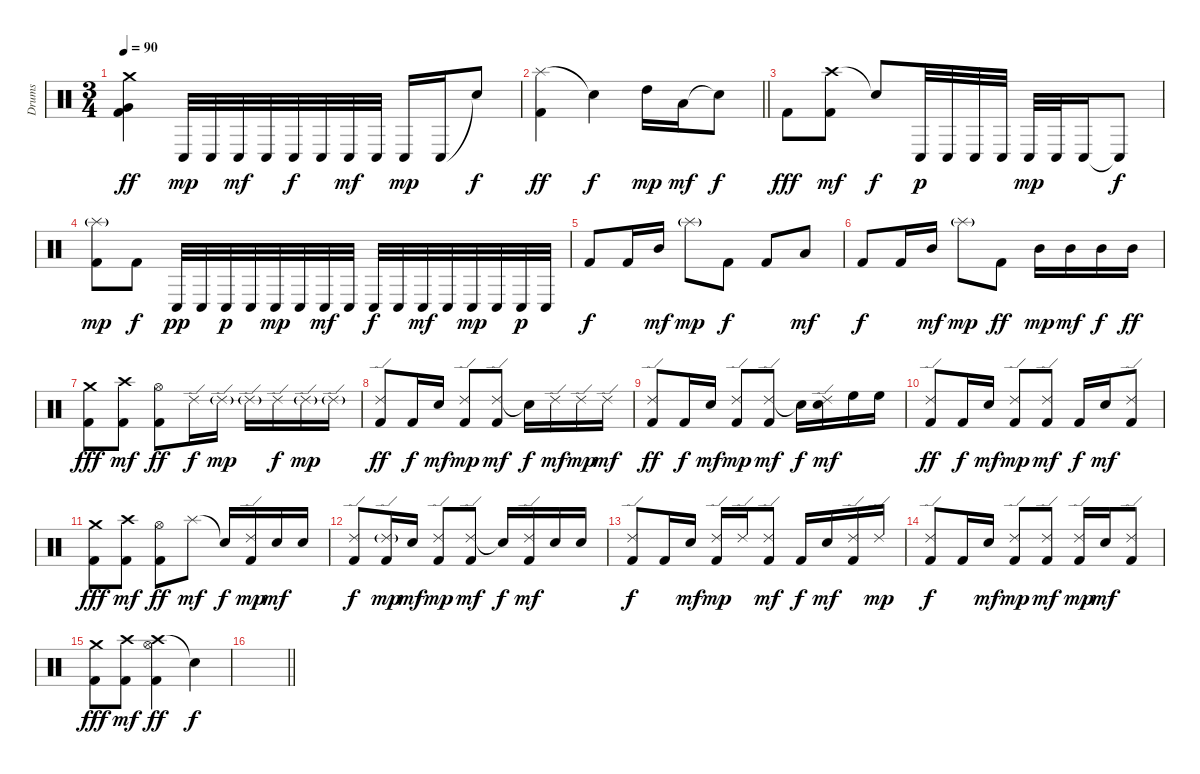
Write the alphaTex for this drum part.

\track ("Drums" "Drums") {instrument percussion}
\staff {score}
\articulation defaults
\ts (3 4)
\tempo 90
\clef neutral
\ks c
("Crash medium (hit)" "Very Low Tom (hit)" "Kick (hit) 2").4{dy ff} "Conga low (hit)".32{dy mp} "Conga low (hit)".32 "Conga low (hit)".32{dy mf} "Conga low (hit)".32 "Conga low (hit)".32{dy f} "Conga low (hit)".32 "Conga low (hit)".32{dy mf} "Conga low (hit)".32 "Conga low (hit)".16{dy mp} "Conga low (hit)".16 "Snare (hit)"{t}.8{dy f} |
\barLineRight lightlight
("Splash (hit)" "Kick (hit) 2").4{dy ff} "Snare (hit)"{t}.4{dy f} "High Tom (hit)".16{dy mp} "Low Tom (hit)".16{dy mf} "Snare (hit)"{t}.8{dy f} |
\section ("" "")
"Kick (hit) 2".8{dy fff} ("Crash high (hit)" "Kick (hit) 2").8{dy mf} "Snare (hit)"{t}.8{dy f} "Conga low (hit)".32{dy p} "Conga low (hit)".32 "Conga low (hit)".32 "Conga low (hit)".32 "Conga low (hit)".32{dy mp} "Conga low (hit)".32 "Conga low (hit)".16 "Conga low (hit)"{t}.8{dy f} |
("Splash (hit)"{g} "Kick (hit) 2").8{dy mp} "Kick (hit) 2".8{dy f} "Conga low (hit)".32{dy pp} "Conga low (hit)".32 "Conga low (hit)".32{dy p} "Conga low (hit)".32 "Conga low (hit)".32{dy mp} "Conga low (hit)".32 "Conga low (hit)".32{dy mf} "Conga low (hit)".32 "Conga low (hit)".32{dy f} "Conga low (hit)".32 "Conga low (hit)".32{dy mf} "Conga low (hit)".32 "Conga low (hit)".32{dy mp} "Conga low (hit)".32 "Conga low (hit)".32{dy p} "Conga low (hit)".32 |
"Kick (hit) 2".8{dy f} "Kick (hit) 2".16 "Mid Tom (hit)".16{dy mf} "Splash (hit)"{g}.8{dy mp} "Kick (hit) 2".8{dy f} "Kick (hit) 2".8 "Low Tom (hit)".8{dy mf} |
"Kick (hit) 2".8{dy f} "Kick (hit) 2".16 "Mid Tom (hit)".16{dy mf} "Splash (hit)"{g}.8{dy mp} "Kick (hit) 2".8{dy ff} "Mid Tom (hit)".16{dy mp} "Mid Tom (hit)".16{dy mf} "Mid Tom (hit)".16{dy f} "Mid Tom (hit)".16{dy ff} |
("Crash medium (hit)" "Kick (hit) 2").8{dy fff} ("Crash high (hit)" "Kick (hit) 2").8{dy mf} ("Hi-Hat (open)" "Kick (hit) 2").8{dy ff} "Ride (edge) 2".16{dy f} "Ride (edge) 2"{g}.16{dy mp} "Ride (edge) 2"{g}.16 "Ride (edge) 2".16{dy f} "Ride (edge) 2"{g}.16{dy mp} "Ride (edge) 2"{g}.16 |
("Ride (edge) 2" "Kick (hit) 2").8{dy ff} "Kick (hit) 2".16{dy f} "Snare (hit) 2".16{dy mf} ("Ride (edge) 2" "Kick (hit) 2").8{dy mp} ("Ride (edge) 2" "Kick (hit) 2").8{dy mf} "Snare (hit)"{t}.16{dy f} "Ride (edge) 2".16{dy mf} "Ride (edge) 2".16{dy mp} "Ride (edge) 2".16{dy mf} |
("Ride (edge) 2" "Kick (hit) 2").8{dy ff} "Kick (hit) 2".16{dy f} "Snare (hit) 2".16{dy mf} ("Ride (edge) 2" "Kick (hit) 2").8{dy mp} ("Ride (edge) 2" "Kick (hit) 2").8{dy mf} "Snare (hit)"{t}.16{dy f} ("Ride (edge) 2" "Snare (hit) 2").16{dy mf} "High Floor Tom (hit)".16 "High Floor Tom (hit)".16 |
("Ride (edge) 2" "Kick (hit) 2").8{dy ff} "Kick (hit) 2".16{dy f} "Snare (hit) 2".16{dy mf} ("Ride (edge) 2" "Kick (hit) 2").8{dy mp} ("Ride (edge) 2" "Kick (hit) 2").8{dy mf} "Kick (hit) 2".16{dy f} "Snare (hit) 2".16{dy mf} ("Ride (edge) 2" "Kick (hit) 2").8 |
("Crash medium (hit)" "Kick (hit) 2").8{dy fff} ("Crash high (hit)" "Kick (hit) 2").8{dy mf} ("Hi-Hat (open)" "Kick (hit) 2").8{dy ff} "Splash (hit)".8{dy mf} "Snare (hit)"{t}.16{dy f} ("Ride (edge) 2" "Kick (hit) 2").16{dy mp} "Snare (hit) 2".16{dy mf} "Snare (hit) 2".16 |
("Ride (edge) 2" "Kick (hit) 2").8{dy f} ("Ride (edge) 2"{g} "Kick (hit) 2").16{dy mp} "Snare (hit) 2".16{dy mf} ("Ride (edge) 2" "Kick (hit) 2").8{dy mp} ("Ride (edge) 2" "Kick (hit) 2").8{dy mf} "Snare (hit)"{t}.16{dy f} ("Ride (edge) 2" "Kick (hit) 2").16{dy mf} "Snare (hit) 2".16 "Snare (hit) 2".16 |
("Ride (edge) 2" "Kick (hit) 2").8{dy f} "Kick (hit) 2".16 "Snare (hit) 2".16{dy mf} ("Ride (edge) 2" "Kick (hit) 2").16{dy mp} "Ride (edge) 2".16 ("Ride (edge) 2" "Kick (hit) 2").8{dy mf} "Kick (hit) 2".16{dy f} "Snare (hit) 2".16{dy mf} ("Ride (edge) 2" "Kick (hit) 2").16 "Ride (edge) 2".16{dy mp} |
("Ride (edge) 2" "Kick (hit) 2").8{dy f} "Kick (hit) 2".16 "Snare (hit) 2".16{dy mf} ("Ride (edge) 2" "Kick (hit) 2").8{dy mp} ("Ride (edge) 2" "Kick (hit) 2").8{dy mf} ("Ride (edge) 2" "Kick (hit) 2").16{dy mp} "Snare (hit) 2".16{dy mf} ("Ride (edge) 2" "Kick (hit) 2").8 |
("Crash medium (hit)" "Kick (hit) 2").8{dy fff} ("Crash high (hit)" "Kick (hit) 2").8{dy mf} ("Crash high (hit)" "Hi-Hat (open)" "Kick (hit) 2").4{dy ff} "Snare (hit)"{t}.4{dy f} |
\barLineRight lightlight
